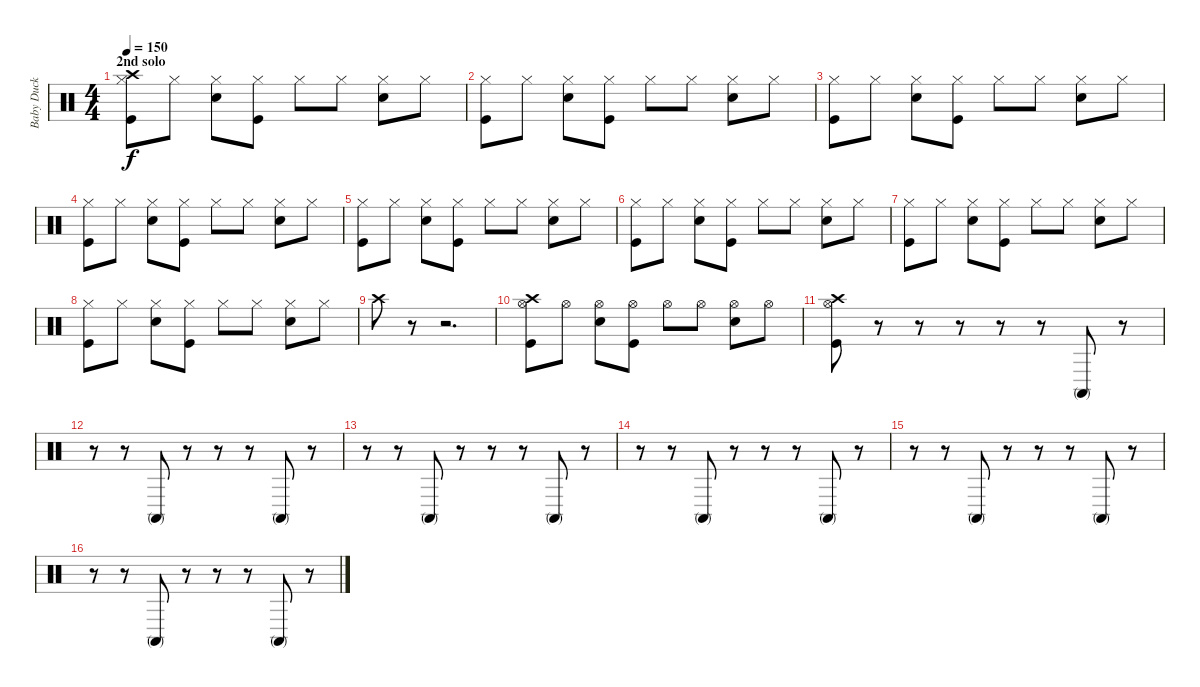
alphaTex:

\track ("Baby Duck" "Baby Duck") {instrument percussion}
\staff {score}
\articulation defaults
\ts (4 4)
\section ("" "2nd solo")
\tempo 150
\clef neutral
\ks c
("Kick (hit)" "Hi-Hat (closed)" "Crash high (hit)").8{dy f} "Hi-Hat (closed)".8 ("Electric Snare (hit)" "Hi-Hat (closed)").8 ("Kick (hit)" "Hi-Hat (closed)").8 "Hi-Hat (closed)".8 "Hi-Hat (closed)".8 ("Electric Snare (hit)" "Hi-Hat (closed)").8 "Hi-Hat (closed)".8 |
("Kick (hit)" "Hi-Hat (closed)").8 "Hi-Hat (closed)".8 ("Electric Snare (hit)" "Hi-Hat (closed)").8 ("Kick (hit)" "Hi-Hat (closed)").8 "Hi-Hat (closed)".8 "Hi-Hat (closed)".8 ("Electric Snare (hit)" "Hi-Hat (closed)").8 "Hi-Hat (closed)".8 |
("Kick (hit)" "Hi-Hat (closed)").8 "Hi-Hat (closed)".8 ("Electric Snare (hit)" "Hi-Hat (closed)").8 ("Kick (hit)" "Hi-Hat (closed)").8 "Hi-Hat (closed)".8 "Hi-Hat (closed)".8 ("Electric Snare (hit)" "Hi-Hat (closed)").8 "Hi-Hat (closed)".8 |
("Kick (hit)" "Hi-Hat (closed)").8 "Hi-Hat (closed)".8 ("Electric Snare (hit)" "Hi-Hat (closed)").8 ("Kick (hit)" "Hi-Hat (closed)").8 "Hi-Hat (closed)".8 "Hi-Hat (closed)".8 ("Electric Snare (hit)" "Hi-Hat (closed)").8 "Hi-Hat (closed)".8 |
\section ("" "")
("Kick (hit)" "Hi-Hat (closed)").8 "Hi-Hat (closed)".8 ("Electric Snare (hit)" "Hi-Hat (closed)").8 ("Kick (hit)" "Hi-Hat (closed)").8 "Hi-Hat (closed)".8 "Hi-Hat (closed)".8 ("Electric Snare (hit)" "Hi-Hat (closed)").8 "Hi-Hat (closed)".8 |
("Kick (hit)" "Hi-Hat (closed)").8 "Hi-Hat (closed)".8 ("Electric Snare (hit)" "Hi-Hat (closed)").8 ("Kick (hit)" "Hi-Hat (closed)").8 "Hi-Hat (closed)".8 "Hi-Hat (closed)".8 ("Electric Snare (hit)" "Hi-Hat (closed)").8 "Hi-Hat (closed)".8 |
("Kick (hit)" "Hi-Hat (closed)").8 "Hi-Hat (closed)".8 ("Electric Snare (hit)" "Hi-Hat (closed)").8 ("Kick (hit)" "Hi-Hat (closed)").8 "Hi-Hat (closed)".8 "Hi-Hat (closed)".8 ("Electric Snare (hit)" "Hi-Hat (closed)").8 "Hi-Hat (closed)".8 |
("Kick (hit)" "Hi-Hat (closed)").8 "Hi-Hat (closed)".8 ("Electric Snare (hit)" "Hi-Hat (closed)").8 ("Kick (hit)" "Hi-Hat (closed)").8 "Hi-Hat (closed)".8 "Hi-Hat (closed)".8 ("Electric Snare (hit)" "Hi-Hat (closed)").8 "Hi-Hat (closed)".8 |
\section ("" "")
"Crash high (hit)".8 r.8 r.2{d} |
("Kick (hit)" "Hi-Hat (open)" "Crash high (hit)").8 "Hi-Hat (open)".8 ("Electric Snare (hit)" "Hi-Hat (open)").8 ("Kick (hit)" "Hi-Hat (open)").8 "Hi-Hat (open)".8 "Hi-Hat (open)".8 ("Electric Snare (hit)" "Hi-Hat (open)").8 "Hi-Hat (open)".8 |
\section ("" "")
("Kick (hit)" "Hi-Hat (open)" "Crash high (hit)").8 r.8 r.8 r.8 r.8 r.8 "Conga high (mute)".8 r.8 |
r.8 r.8 "Conga high (mute)".8 r.8 r.8 r.8 "Conga high (mute)".8 r.8 |
r.8 r.8 "Conga high (mute)".8 r.8 r.8 r.8 "Conga high (mute)".8 r.8 |
r.8 r.8 "Conga high (mute)".8 r.8 r.8 r.8 "Conga high (mute)".8 r.8 |
\section ("" "")
r.8 r.8 "Conga high (mute)".8 r.8 r.8 r.8 "Conga high (mute)".8 r.8 |
r.8 r.8 "Conga high (mute)".8 r.8 r.8 r.8 "Conga high (mute)".8 r.8
